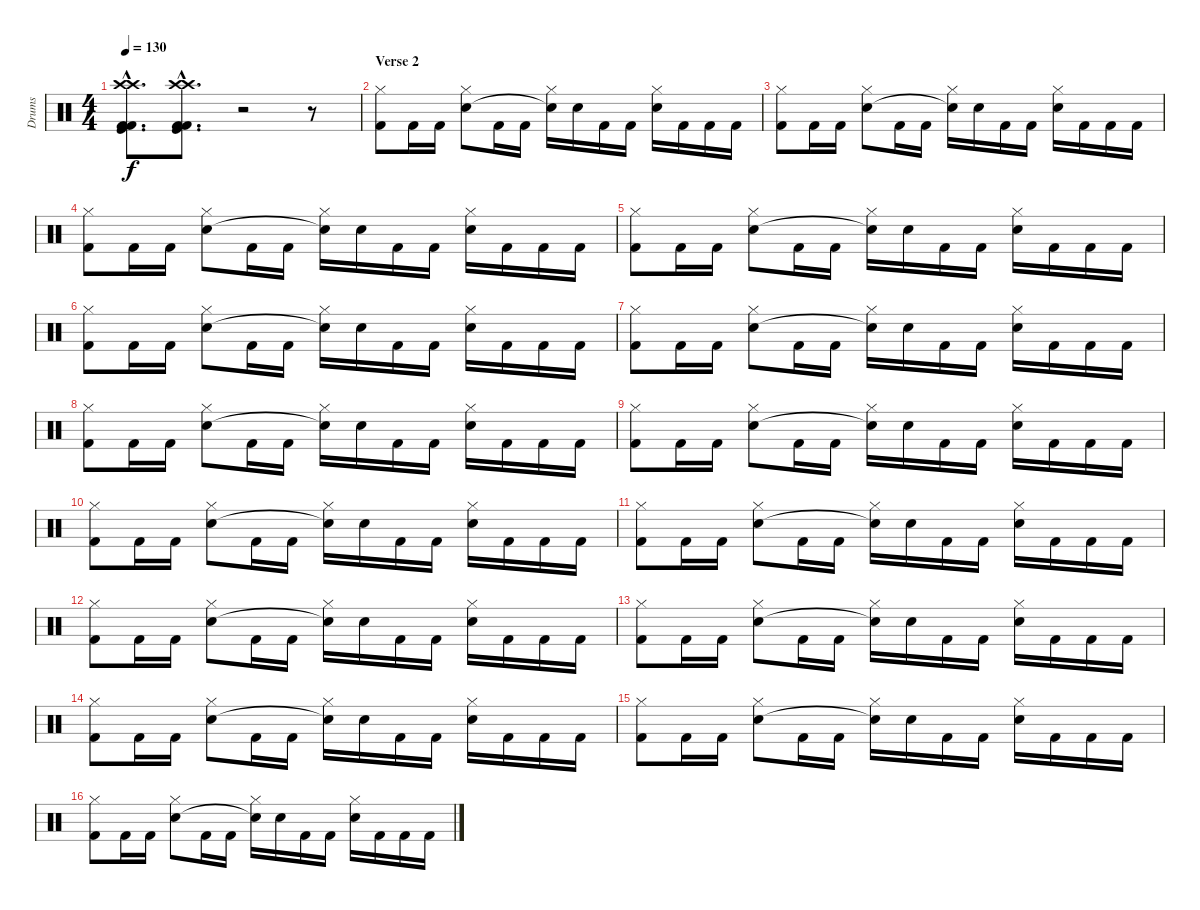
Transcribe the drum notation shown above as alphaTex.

\track ("Drums" "Drums") {instrument percussion}
\staff {score}
\articulation defaults
\ts (4 4)
\tempo 130
\clef neutral
\ks c
("Crash high (hit)"{hac} "Crash high (hit)"{hac} "Kick (hit)"{hac} "Kick (hit) 2"{hac} "Kick (hit) 2"{hac}).8{d dy f} ("Crash high (hit)"{hac} "Crash high (hit)"{hac} "Kick (hit)"{hac} "Kick (hit) 2"{hac} "Kick (hit) 2"{hac}).8{d} r.2 r.8 |
\section ("" "Verse 2")
("Hi-Hat (closed)" "Kick (hit) 2").8 "Kick (hit) 2".16 "Kick (hit) 2".16 ("Hi-Hat (closed)" "Electric Snare (hit)").8 "Kick (hit) 2".16 "Kick (hit) 2".16 ("Hi-Hat (closed)" "Snare (hit)"{t}).16 "Electric Snare (hit)".16 "Kick (hit) 2".16 "Kick (hit) 2".16 ("Hi-Hat (closed)" "Electric Snare (hit)").16 "Kick (hit) 2".16 "Kick (hit) 2".16 "Kick (hit) 2".16 |
("Hi-Hat (closed)" "Kick (hit) 2").8 "Kick (hit) 2".16 "Kick (hit) 2".16 ("Hi-Hat (closed)" "Electric Snare (hit)").8 "Kick (hit) 2".16 "Kick (hit) 2".16 ("Hi-Hat (closed)" "Snare (hit)"{t}).16 "Electric Snare (hit)".16 "Kick (hit) 2".16 "Kick (hit) 2".16 ("Hi-Hat (closed)" "Electric Snare (hit)").16 "Kick (hit) 2".16 "Kick (hit) 2".16 "Kick (hit) 2".16 |
("Hi-Hat (closed)" "Kick (hit) 2").8 "Kick (hit) 2".16 "Kick (hit) 2".16 ("Hi-Hat (closed)" "Electric Snare (hit)").8 "Kick (hit) 2".16 "Kick (hit) 2".16 ("Hi-Hat (closed)" "Snare (hit)"{t}).16 "Electric Snare (hit)".16 "Kick (hit) 2".16 "Kick (hit) 2".16 ("Hi-Hat (closed)" "Electric Snare (hit)").16 "Kick (hit) 2".16 "Kick (hit) 2".16 "Kick (hit) 2".16 |
("Hi-Hat (closed)" "Kick (hit) 2").8 "Kick (hit) 2".16 "Kick (hit) 2".16 ("Hi-Hat (closed)" "Electric Snare (hit)").8 "Kick (hit) 2".16 "Kick (hit) 2".16 ("Hi-Hat (closed)" "Snare (hit)"{t}).16 "Electric Snare (hit)".16 "Kick (hit) 2".16 "Kick (hit) 2".16 ("Hi-Hat (closed)" "Electric Snare (hit)").16 "Kick (hit) 2".16 "Kick (hit) 2".16 "Kick (hit) 2".16 |
("Hi-Hat (closed)" "Kick (hit) 2").8 "Kick (hit) 2".16 "Kick (hit) 2".16 ("Hi-Hat (closed)" "Electric Snare (hit)").8 "Kick (hit) 2".16 "Kick (hit) 2".16 ("Hi-Hat (closed)" "Snare (hit)"{t}).16 "Electric Snare (hit)".16 "Kick (hit) 2".16 "Kick (hit) 2".16 ("Hi-Hat (closed)" "Electric Snare (hit)").16 "Kick (hit) 2".16 "Kick (hit) 2".16 "Kick (hit) 2".16 |
("Hi-Hat (closed)" "Kick (hit) 2").8 "Kick (hit) 2".16 "Kick (hit) 2".16 ("Hi-Hat (closed)" "Electric Snare (hit)").8 "Kick (hit) 2".16 "Kick (hit) 2".16 ("Hi-Hat (closed)" "Snare (hit)"{t}).16 "Electric Snare (hit)".16 "Kick (hit) 2".16 "Kick (hit) 2".16 ("Hi-Hat (closed)" "Electric Snare (hit)").16 "Kick (hit) 2".16 "Kick (hit) 2".16 "Kick (hit) 2".16 |
("Hi-Hat (closed)" "Kick (hit) 2").8 "Kick (hit) 2".16 "Kick (hit) 2".16 ("Hi-Hat (closed)" "Electric Snare (hit)").8 "Kick (hit) 2".16 "Kick (hit) 2".16 ("Hi-Hat (closed)" "Snare (hit)"{t}).16 "Electric Snare (hit)".16 "Kick (hit) 2".16 "Kick (hit) 2".16 ("Hi-Hat (closed)" "Electric Snare (hit)").16 "Kick (hit) 2".16 "Kick (hit) 2".16 "Kick (hit) 2".16 |
("Hi-Hat (closed)" "Kick (hit) 2").8 "Kick (hit) 2".16 "Kick (hit) 2".16 ("Hi-Hat (closed)" "Electric Snare (hit)").8 "Kick (hit) 2".16 "Kick (hit) 2".16 ("Hi-Hat (closed)" "Snare (hit)"{t}).16 "Electric Snare (hit)".16 "Kick (hit) 2".16 "Kick (hit) 2".16 ("Hi-Hat (closed)" "Electric Snare (hit)").16 "Kick (hit) 2".16 "Kick (hit) 2".16 "Kick (hit) 2".16 |
("Hi-Hat (closed)" "Kick (hit) 2").8 "Kick (hit) 2".16 "Kick (hit) 2".16 ("Hi-Hat (closed)" "Electric Snare (hit)").8 "Kick (hit) 2".16 "Kick (hit) 2".16 ("Hi-Hat (closed)" "Snare (hit)"{t}).16 "Electric Snare (hit)".16 "Kick (hit) 2".16 "Kick (hit) 2".16 ("Hi-Hat (closed)" "Electric Snare (hit)").16 "Kick (hit) 2".16 "Kick (hit) 2".16 "Kick (hit) 2".16 |
("Hi-Hat (closed)" "Kick (hit) 2").8 "Kick (hit) 2".16 "Kick (hit) 2".16 ("Hi-Hat (closed)" "Electric Snare (hit)").8 "Kick (hit) 2".16 "Kick (hit) 2".16 ("Hi-Hat (closed)" "Snare (hit)"{t}).16 "Electric Snare (hit)".16 "Kick (hit) 2".16 "Kick (hit) 2".16 ("Hi-Hat (closed)" "Electric Snare (hit)").16 "Kick (hit) 2".16 "Kick (hit) 2".16 "Kick (hit) 2".16 |
("Hi-Hat (closed)" "Kick (hit) 2").8 "Kick (hit) 2".16 "Kick (hit) 2".16 ("Hi-Hat (closed)" "Electric Snare (hit)").8 "Kick (hit) 2".16 "Kick (hit) 2".16 ("Hi-Hat (closed)" "Snare (hit)"{t}).16 "Electric Snare (hit)".16 "Kick (hit) 2".16 "Kick (hit) 2".16 ("Hi-Hat (closed)" "Electric Snare (hit)").16 "Kick (hit) 2".16 "Kick (hit) 2".16 "Kick (hit) 2".16 |
("Hi-Hat (closed)" "Kick (hit) 2").8 "Kick (hit) 2".16 "Kick (hit) 2".16 ("Hi-Hat (closed)" "Electric Snare (hit)").8 "Kick (hit) 2".16 "Kick (hit) 2".16 ("Hi-Hat (closed)" "Snare (hit)"{t}).16 "Electric Snare (hit)".16 "Kick (hit) 2".16 "Kick (hit) 2".16 ("Hi-Hat (closed)" "Electric Snare (hit)").16 "Kick (hit) 2".16 "Kick (hit) 2".16 "Kick (hit) 2".16 |
("Hi-Hat (closed)" "Kick (hit) 2").8 "Kick (hit) 2".16 "Kick (hit) 2".16 ("Hi-Hat (closed)" "Electric Snare (hit)").8 "Kick (hit) 2".16 "Kick (hit) 2".16 ("Hi-Hat (closed)" "Snare (hit)"{t}).16 "Electric Snare (hit)".16 "Kick (hit) 2".16 "Kick (hit) 2".16 ("Hi-Hat (closed)" "Electric Snare (hit)").16 "Kick (hit) 2".16 "Kick (hit) 2".16 "Kick (hit) 2".16 |
("Hi-Hat (closed)" "Kick (hit) 2").8 "Kick (hit) 2".16 "Kick (hit) 2".16 ("Hi-Hat (closed)" "Electric Snare (hit)").8 "Kick (hit) 2".16 "Kick (hit) 2".16 ("Hi-Hat (closed)" "Snare (hit)"{t}).16 "Electric Snare (hit)".16 "Kick (hit) 2".16 "Kick (hit) 2".16 ("Hi-Hat (closed)" "Electric Snare (hit)").16 "Kick (hit) 2".16 "Kick (hit) 2".16 "Kick (hit) 2".16 |
("Hi-Hat (closed)" "Kick (hit) 2").8 "Kick (hit) 2".16 "Kick (hit) 2".16 ("Hi-Hat (closed)" "Electric Snare (hit)").8 "Kick (hit) 2".16 "Kick (hit) 2".16 ("Hi-Hat (closed)" "Snare (hit)"{t}).16 "Electric Snare (hit)".16 "Kick (hit) 2".16 "Kick (hit) 2".16 ("Hi-Hat (closed)" "Electric Snare (hit)").16 "Kick (hit) 2".16 "Kick (hit) 2".16 "Kick (hit) 2".16
